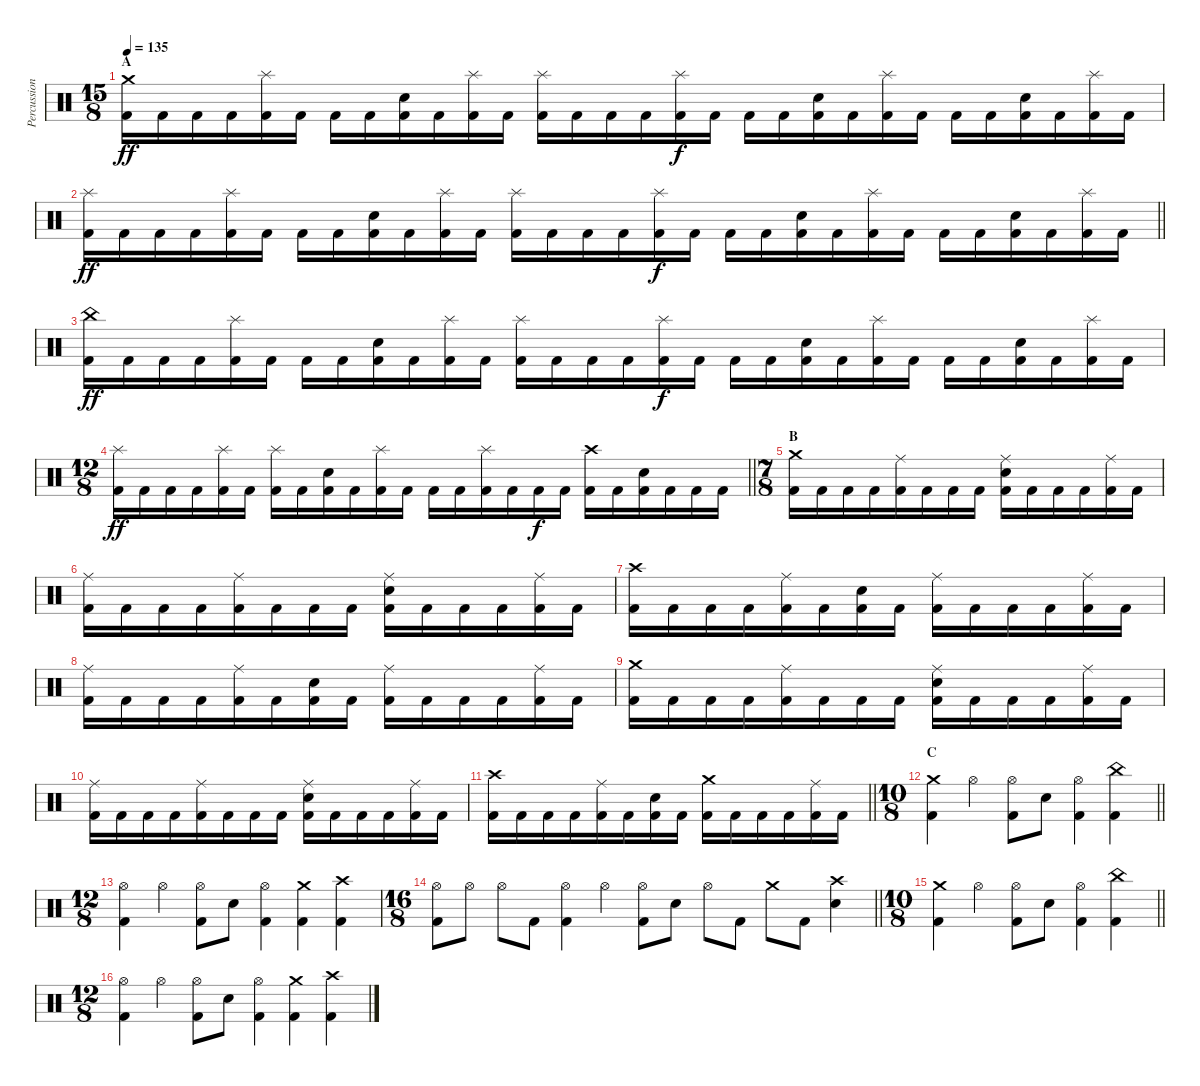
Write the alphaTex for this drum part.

\track ("Percussion" "Percussion") {instrument percussion}
\staff {score}
\articulation defaults
\ts (15 8)
\section ("" "A")
\tempo 135
\clef neutral
\ks c
("Crash medium (hit)" "Kick (hit) 2").16{dy ff} "Kick (hit) 2".16 "Kick (hit) 2".16 "Kick (hit) 2".16 ("Splash (hit)" "Kick (hit) 2").16 "Kick (hit) 2".16 "Kick (hit) 2".16 "Kick (hit) 2".16 ("Snare (hit) 2" "Kick (hit) 2").16 "Kick (hit) 2".16 ("Splash (hit)" "Kick (hit) 2").16 "Kick (hit) 2".16 ("Splash (hit)" "Kick (hit) 2").16 "Kick (hit) 2".16 "Kick (hit) 2".16 "Kick (hit) 2".16 ("Splash (hit)" "Kick (hit) 2").16{dy f} "Kick (hit) 2".16 "Kick (hit) 2".16 "Kick (hit) 2".16 ("Snare (hit) 2" "Kick (hit) 2").16 "Kick (hit) 2".16 ("Splash (hit)" "Kick (hit) 2").16 "Kick (hit) 2".16 "Kick (hit) 2".16 "Kick (hit) 2".16 ("Snare (hit) 2" "Kick (hit) 2").16 "Kick (hit) 2".16 ("Splash (hit)" "Kick (hit) 2").16 "Kick (hit) 2".16 |
\barLineRight lightlight
("Splash (hit)" "Kick (hit) 2").16{dy ff} "Kick (hit) 2".16 "Kick (hit) 2".16 "Kick (hit) 2".16 ("Splash (hit)" "Kick (hit) 2").16 "Kick (hit) 2".16 "Kick (hit) 2".16 "Kick (hit) 2".16 ("Snare (hit) 2" "Kick (hit) 2").16 "Kick (hit) 2".16 ("Splash (hit)" "Kick (hit) 2").16 "Kick (hit) 2".16 ("Splash (hit)" "Kick (hit) 2").16 "Kick (hit) 2".16 "Kick (hit) 2".16 "Kick (hit) 2".16 ("Splash (hit)" "Kick (hit) 2").16{dy f} "Kick (hit) 2".16 "Kick (hit) 2".16 "Kick (hit) 2".16 ("Snare (hit) 2" "Kick (hit) 2").16 "Kick (hit) 2".16 ("Splash (hit)" "Kick (hit) 2").16 "Kick (hit) 2".16 "Kick (hit) 2".16 "Kick (hit) 2".16 ("Snare (hit) 2" "Kick (hit) 2").16 "Kick (hit) 2".16 ("Splash (hit)" "Kick (hit) 2").16 "Kick (hit) 2".16 |
("China (hit)" "Kick (hit) 2").16{dy ff} "Kick (hit) 2".16 "Kick (hit) 2".16 "Kick (hit) 2".16 ("Splash (hit)" "Kick (hit) 2").16 "Kick (hit) 2".16 "Kick (hit) 2".16 "Kick (hit) 2".16 ("Snare (hit) 2" "Kick (hit) 2").16 "Kick (hit) 2".16 ("Splash (hit)" "Kick (hit) 2").16 "Kick (hit) 2".16 ("Splash (hit)" "Kick (hit) 2").16 "Kick (hit) 2".16 "Kick (hit) 2".16 "Kick (hit) 2".16 ("Splash (hit)" "Kick (hit) 2").16{dy f} "Kick (hit) 2".16 "Kick (hit) 2".16 "Kick (hit) 2".16 ("Snare (hit) 2" "Kick (hit) 2").16 "Kick (hit) 2".16 ("Splash (hit)" "Kick (hit) 2").16 "Kick (hit) 2".16 "Kick (hit) 2".16 "Kick (hit) 2".16 ("Snare (hit) 2" "Kick (hit) 2").16 "Kick (hit) 2".16 ("Splash (hit)" "Kick (hit) 2").16 "Kick (hit) 2".16 |
\ts (12 8)
\barLineRight lightlight
("Splash (hit)" "Kick (hit) 2").16{dy ff} "Kick (hit) 2".16 "Kick (hit) 2".16 "Kick (hit) 2".16 ("Splash (hit)" "Kick (hit) 2").16 "Kick (hit) 2".16 ("Splash (hit)" "Kick (hit) 2").16 "Kick (hit) 2".16 ("Snare (hit) 2" "Kick (hit) 2").16 "Kick (hit) 2".16 ("Splash (hit)" "Kick (hit) 2").16 "Kick (hit) 2".16 "Kick (hit) 2".16 "Kick (hit) 2".16 ("Splash (hit)" "Kick (hit) 2").16 "Kick (hit) 2".16 "Kick (hit) 2".16{dy f} "Kick (hit) 2".16 ("Crash high (hit)" "Kick (hit) 2").16 "Kick (hit) 2".16 ("Snare (hit) 2" "Kick (hit) 2").16 "Kick (hit) 2".16 "Kick (hit) 2".16 "Kick (hit) 2".16 |
\ts (7 8)
\section ("" "B")
("Crash medium (hit)" "Kick (hit) 2").16 "Kick (hit) 2".16 "Kick (hit) 2".16 "Kick (hit) 2".16 ("Ride (middle)" "Kick (hit) 2").16 "Kick (hit) 2".16 "Kick (hit) 2".16 "Kick (hit) 2".16 ("Ride (middle)" "Snare (hit) 2" "Kick (hit) 2").16 "Kick (hit) 2".16 "Kick (hit) 2".16 "Kick (hit) 2".16 ("Ride (middle)" "Kick (hit) 2").16 "Kick (hit) 2".16 |
("Ride (middle)" "Kick (hit) 2").16 "Kick (hit) 2".16 "Kick (hit) 2".16 "Kick (hit) 2".16 ("Ride (middle)" "Kick (hit) 2").16 "Kick (hit) 2".16 "Kick (hit) 2".16 "Kick (hit) 2".16 ("Ride (middle)" "Snare (hit) 2" "Kick (hit) 2").16 "Kick (hit) 2".16 "Kick (hit) 2".16 "Kick (hit) 2".16 ("Ride (middle)" "Kick (hit) 2").16 "Kick (hit) 2".16 |
("Crash high (hit)" "Kick (hit) 2").16 "Kick (hit) 2".16 "Kick (hit) 2".16 "Kick (hit) 2".16 ("Ride (middle)" "Kick (hit) 2").16 "Kick (hit) 2".16 ("Snare (hit) 2" "Kick (hit) 2").16 "Kick (hit) 2".16 ("Ride (middle)" "Kick (hit) 2").16 "Kick (hit) 2".16 "Kick (hit) 2".16 "Kick (hit) 2".16 ("Ride (middle)" "Kick (hit) 2").16 "Kick (hit) 2".16 |
("Ride (middle)" "Kick (hit) 2").16 "Kick (hit) 2".16 "Kick (hit) 2".16 "Kick (hit) 2".16 ("Ride (middle)" "Kick (hit) 2").16 "Kick (hit) 2".16 ("Snare (hit) 2" "Kick (hit) 2").16 "Kick (hit) 2".16 ("Ride (middle)" "Kick (hit) 2").16 "Kick (hit) 2".16 "Kick (hit) 2".16 "Kick (hit) 2".16 ("Ride (middle)" "Kick (hit) 2").16 "Kick (hit) 2".16 |
("Crash medium (hit)" "Kick (hit) 2").16 "Kick (hit) 2".16 "Kick (hit) 2".16 "Kick (hit) 2".16 ("Ride (middle)" "Kick (hit) 2").16 "Kick (hit) 2".16 "Kick (hit) 2".16 "Kick (hit) 2".16 ("Ride (middle)" "Snare (hit) 2" "Kick (hit) 2").16 "Kick (hit) 2".16 "Kick (hit) 2".16 "Kick (hit) 2".16 ("Ride (middle)" "Kick (hit) 2").16 "Kick (hit) 2".16 |
("Ride (middle)" "Kick (hit) 2").16 "Kick (hit) 2".16 "Kick (hit) 2".16 "Kick (hit) 2".16 ("Ride (middle)" "Kick (hit) 2").16 "Kick (hit) 2".16 "Kick (hit) 2".16 "Kick (hit) 2".16 ("Ride (middle)" "Snare (hit) 2" "Kick (hit) 2").16 "Kick (hit) 2".16 "Kick (hit) 2".16 "Kick (hit) 2".16 ("Ride (middle)" "Kick (hit) 2").16 "Kick (hit) 2".16 |
\barLineRight lightlight
("Crash high (hit)" "Kick (hit) 2").16 "Kick (hit) 2".16 "Kick (hit) 2".16 "Kick (hit) 2".16 ("Ride (middle)" "Kick (hit) 2").16 "Kick (hit) 2".16 ("Snare (hit) 2" "Kick (hit) 2").16 "Kick (hit) 2".16 ("Crash medium (hit)" "Kick (hit) 2").16 "Kick (hit) 2".16 "Kick (hit) 2".16 "Kick (hit) 2".16 ("Ride (middle)" "Kick (hit) 2").16 "Kick (hit) 2".16 |
\ts (10 8)
\section ("" "C")
\barLineRight lightlight
("Crash medium (hit)" "Kick (hit) 2").4 "Hi-Hat (open)".4 ("Hi-Hat (open)" "Kick (hit) 2").8 "Snare (hit) 2".8 ("Hi-Hat (open)" "Kick (hit) 2").4 ("China (hit)" "Kick (hit) 2").4 |
\ts (12 8)
("Hi-Hat (open)" "Kick (hit) 2").4 "Hi-Hat (open)".4 ("Hi-Hat (open)" "Kick (hit) 2").8 "Snare (hit) 2".8 ("Hi-Hat (open)" "Kick (hit) 2").4 ("Crash medium (hit)" "Kick (hit) 2").4 ("Crash high (hit)" "Kick (hit) 2").4 |
\ts (16 8)
\barLineRight lightlight
("Hi-Hat (open)" "Kick (hit) 2").8 "Hi-Hat (open)".8 "Hi-Hat (open)".8 "Kick (hit) 2".8 ("Hi-Hat (open)" "Kick (hit) 2").4 "Hi-Hat (open)".4 ("Hi-Hat (open)" "Kick (hit) 2").8 "Snare (hit) 2".8 "Hi-Hat (open)".8 "Kick (hit) 2".8 "Crash medium (hit)".8 "Kick (hit) 2".8 ("Crash high (hit)" "Snare (hit) 2").4 |
\ts (10 8)
\section ("" "")
\barLineRight lightlight
("Crash medium (hit)" "Kick (hit) 2").4 "Hi-Hat (open)".4 ("Hi-Hat (open)" "Kick (hit) 2").8 "Snare (hit) 2".8 ("Hi-Hat (open)" "Kick (hit) 2").4 ("China (hit)" "Kick (hit) 2").4 |
\ts (12 8)
("Hi-Hat (open)" "Kick (hit) 2").4 "Hi-Hat (open)".4 ("Hi-Hat (open)" "Kick (hit) 2").8 "Snare (hit) 2".8 ("Hi-Hat (open)" "Kick (hit) 2").4 ("Crash medium (hit)" "Kick (hit) 2").4 ("Crash high (hit)" "Kick (hit) 2").4
